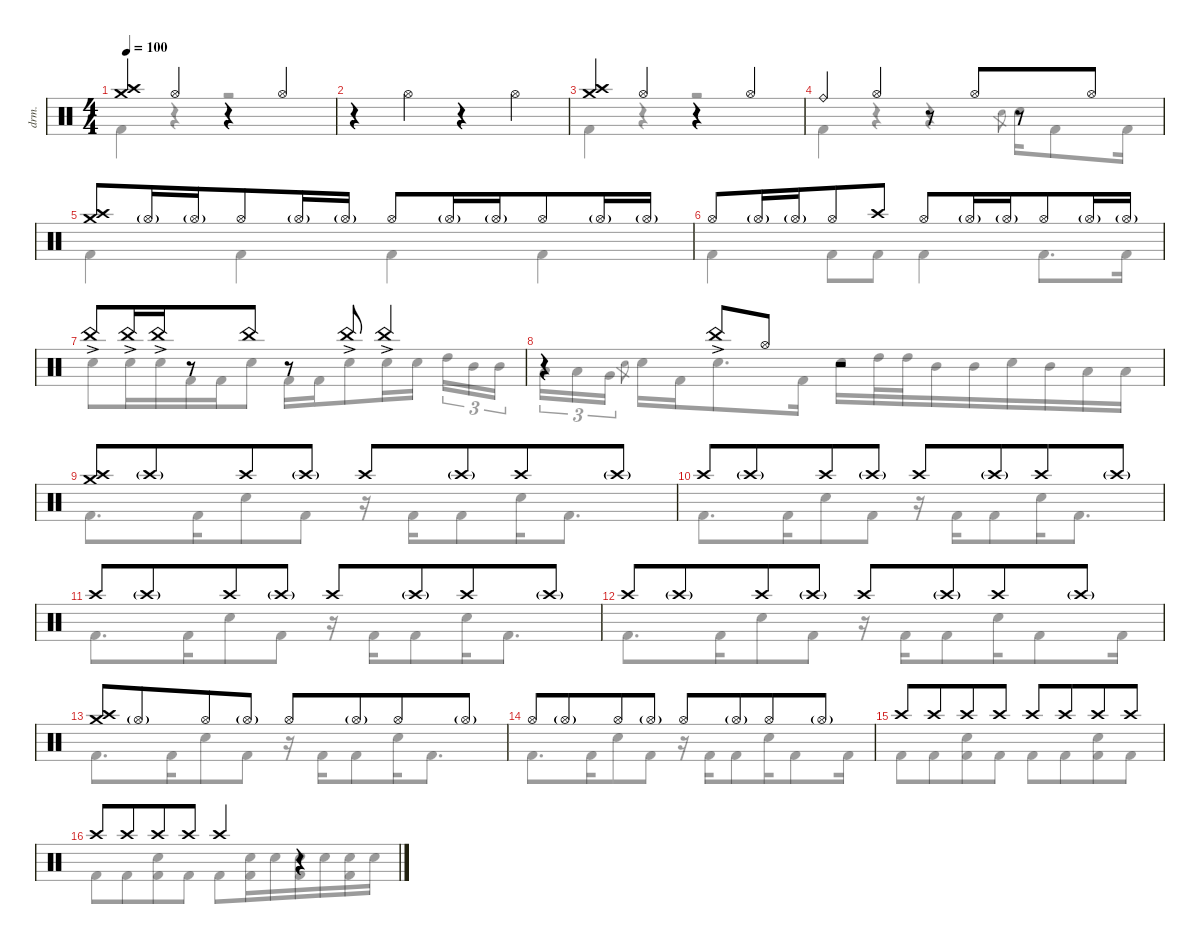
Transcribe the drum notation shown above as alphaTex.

\defaultSystemsLayout 4
\hideDynamics
\bracketExtendMode nobrackets
\otherSystemsTrackNameOrientation horizontal
\track ("B. Richardson Drums" "drm.") {instrument percussion}
\staff {score}
\articulation defaults
\voice
\ts (4 4)
\beaming (8 4 4)
\tempo 100
\clef neutral
\ks c
("Crash high (hit)" "Crash medium (hit)").4{dy f beam Up} "Hi-Hat (open)".4{dy mf beam Up} r.4{beam Up} "Hi-Hat (open)".4{beam Up} |
r.4{beam Down} "Hi-Hat (open)".4{beam Down} r.4{beam Down} "Hi-Hat (open)".4{beam Down} |
("Crash high (hit)" "Crash medium (hit)").4{dy f beam Up} "Hi-Hat (open)".4{dy mf beam Up} r.4{beam Up} "Hi-Hat (open)".4{beam Up} |
"Ride (bell)".4{dy f beam Up} "Hi-Hat (open)".4{dy mf beam Up} r.8{beam Up} "Hi-Hat (open)".8{beam Up} r.8{beam Up} "Hi-Hat (open)".8{beam Up} |
("Crash high (hit)" "Crash medium (hit)").8{dy f beam Up} "Hi-Hat (open)"{g}.16{dy mf beam Up} "Hi-Hat (open)"{g}.16{beam Up} "Hi-Hat (open)".8{beam Up} "Hi-Hat (open)"{g}.16{beam Up} "Hi-Hat (open)"{g}.16{beam Up} "Hi-Hat (open)".8{beam Up} "Hi-Hat (open)"{g}.16{beam Up} "Hi-Hat (open)"{g}.16{beam Up} "Hi-Hat (open)".8{beam Up} "Hi-Hat (open)"{g}.16{beam Up} "Hi-Hat (open)"{g}.16{beam Up} |
"Hi-Hat (open)".8{beam Up} "Hi-Hat (open)"{g}.16{beam Up} "Hi-Hat (open)"{g}.16{beam Up} "Hi-Hat (open)".8{beam Up} "Crash high (hit)".8{beam Up} "Hi-Hat (open)".8{beam Up} "Hi-Hat (open)"{g}.16{beam Up} "Hi-Hat (open)"{g}.16{beam Up} "Hi-Hat (open)".8{beam Up} "Hi-Hat (open)"{g}.16{beam Up} "Hi-Hat (open)"{g}.16{beam Up} |
"China (hit)"{ac}.8{dy f beam Up} "China (hit)"{ac}.16{beam Up} "China (hit)"{ac}.16{beam Up} r.8{beam Up} "China (hit)".8{beam Up} r.8{beam Up} "China (hit)"{ac}.8{beam Up} "China (hit)"{ac}.4{beam Up} |
r.4{beam Up} "China (hit)"{ac}.8{beam Up} "Hi-Hat (open)".8{dy mf beam Up} r.2{beam Up} |
("Crash high (hit)" "Crash medium (hit)").8{dy f beam Up} "Crash high (hit)"{g}.8{dy mf beam Up} "Crash high (hit)".8{beam Up} "Crash high (hit)"{g}.8{beam Up} "Crash high (hit)".8{beam Up} "Crash high (hit)"{g}.8{beam Up} "Crash high (hit)".8{beam Up} "Crash high (hit)"{g}.8{beam Up} |
"Crash high (hit)".8{beam Up} "Crash high (hit)"{g}.8{beam Up} "Crash high (hit)".8{beam Up} "Crash high (hit)"{g}.8{beam Up} "Crash high (hit)".8{beam Up} "Crash high (hit)"{g}.8{beam Up} "Crash high (hit)".8{beam Up} "Crash high (hit)"{g}.8{beam Up} |
"Crash high (hit)".8{beam Up} "Crash high (hit)"{g}.8{beam Up} "Crash high (hit)".8{beam Up} "Crash high (hit)"{g}.8{beam Up} "Crash high (hit)".8{beam Up} "Crash high (hit)"{g}.8{beam Up} "Crash high (hit)".8{beam Up} "Crash high (hit)"{g}.8{beam Up} |
"Crash high (hit)".8{beam Up} "Crash high (hit)"{g}.8{beam Up} "Crash high (hit)".8{beam Up} "Crash high (hit)"{g}.8{beam Up} "Crash high (hit)".8{beam Up} "Crash high (hit)"{g}.8{beam Up} "Crash high (hit)".8{beam Up} "Crash high (hit)"{g}.8{beam Up} |
("Crash high (hit)" "Crash medium (hit)").8{dy f beam Up} "Hi-Hat (open)"{g}.8{dy mf beam Up} "Hi-Hat (open)".8{beam Up} "Hi-Hat (open)"{g}.8{beam Up} "Hi-Hat (open)".8{beam Up} "Hi-Hat (open)"{g}.8{beam Up} "Hi-Hat (open)".8{beam Up} "Hi-Hat (open)"{g}.8{beam Up} |
"Hi-Hat (open)".8{beam Up} "Hi-Hat (open)"{g}.8{beam Up} "Hi-Hat (open)".8{beam Up} "Hi-Hat (open)"{g}.8{beam Up} "Hi-Hat (open)".8{beam Up} "Hi-Hat (open)"{g}.8{beam Up} "Hi-Hat (open)".8{beam Up} "Hi-Hat (open)"{g}.8{beam Up} |
"Crash high (hit)".8{beam Up} "Crash high (hit)".8{beam Up} "Crash high (hit)".8{beam Up} "Crash high (hit)".8{beam Up} "Crash high (hit)".8{beam Up} "Crash high (hit)".8{beam Up} "Crash high (hit)".8{beam Up} "Crash high (hit)".8{beam Up} |
"Crash high (hit)".8{beam Up} "Crash high (hit)".8{beam Up} "Crash high (hit)".8{beam Up} "Crash high (hit)".8{beam Up} "Crash high (hit)".4{beam Up} r.4{beam Up}
\voice
\clef neutral
\ottava regular
\simile none
\ks c "Kick (hit) 2".4{dy fff beam Down}
r.4{beam Down} r.2{beam Down} |
|
"Kick (hit) 2".4{beam Down} r.4{beam Down} r.2{beam Down} |
"Kick (hit) 2".4{beam Down} r.4{beam Down} r.4{beam Down} "Electric Snare (hit)".8{gr dy ff beam Down} "Snare (hit) 2".16{dy fff beam Down} "Kick (hit) 2".8{beam Down} "Kick (hit) 2".16{beam Down} |
"Kick (hit) 2".4{beam Down} "Kick (hit) 2".4{beam Down} "Kick (hit) 2".4{beam Down} "Kick (hit) 2".4{beam Down} |
"Kick (hit) 2".4{beam Down} "Kick (hit) 2".8{beam Down} "Kick (hit) 2".8{beam Down} "Kick (hit) 2".4{beam Down} "Kick (hit) 2".8{d beam Down} "Kick (hit) 2".16{beam Down} |
"Snare (hit) 2".8{beam Down} "Snare (hit) 2".16{beam Down} "Snare (hit) 2".16{beam Down} "Kick (hit) 2".16{beam Down} "Kick (hit) 2".16{beam Down} "Snare (hit) 2".8{beam Down} "Kick (hit) 2".16{beam Down} "Kick (hit) 2".16{beam Down} "Snare (hit) 2".8{beam Down} "Snare (hit) 2".16{beam Down} "Snare (hit) 2".16{beam Down} "High Tom (hit)".16{tu (3 2) beam Down} "Mid Tom (hit)".16{tu (3 2) beam Down} "Mid Tom (hit)".16{tu (3 2) beam Down} |
"Low Tom (hit)".16{tu (3 2) beam Down} "Low Tom (hit)".16{tu (3 2) beam Down} "Very Low Tom (hit)".16{tu (3 2) beam Down} "Electric Snare (hit)".8{gr dy ff beam Down} "Snare (hit) 2".16{dy fff beam Down} "Kick (hit) 2".16{beam Down} "Snare (hit) 2".8{d beam Down} "Kick (hit) 2".16{beam Down} "Snare (hit) 2".16{beam Down} "High Tom (hit)".32{beam Down} "High Tom (hit)".32{beam Down} "Mid Tom (hit)".16{beam Down} "Mid Tom (hit)".16{beam Down} "Snare (hit) 2".16{beam Down} "Mid Tom (hit)".16{beam Down} "Low Tom (hit)".16{beam Down} "Low Tom (hit)".16{beam Down} |
"Kick (hit) 2".8{d beam Down} "Kick (hit) 2".16{beam Down} "Snare (hit) 2".8{beam Down} "Kick (hit) 2".8{beam Down} r.16{beam Down} "Kick (hit) 2".16{beam Down} "Kick (hit) 2".8{beam Down} "Snare (hit) 2".16{beam Down} "Kick (hit) 2".8{d beam Down} |
"Kick (hit) 2".8{d beam Down} "Kick (hit) 2".16{beam Down} "Snare (hit) 2".8{beam Down} "Kick (hit) 2".8{beam Down} r.16{beam Down} "Kick (hit) 2".16{beam Down} "Kick (hit) 2".8{beam Down} "Snare (hit) 2".16{beam Down} "Kick (hit) 2".8{d beam Down} |
"Kick (hit) 2".8{d beam Down} "Kick (hit) 2".16{beam Down} "Snare (hit) 2".8{beam Down} "Kick (hit) 2".8{beam Down} r.16{beam Down} "Kick (hit) 2".16{beam Down} "Kick (hit) 2".8{beam Down} "Snare (hit) 2".16{beam Down} "Kick (hit) 2".8{d beam Down} |
"Kick (hit) 2".8{d beam Down} "Kick (hit) 2".16{beam Down} "Snare (hit) 2".8{beam Down} "Kick (hit) 2".8{beam Down} r.16{beam Down} "Kick (hit) 2".16{beam Down} "Kick (hit) 2".8{beam Down} "Snare (hit) 2".16{beam Down} "Kick (hit) 2".8{beam Down} "Kick (hit) 2".16{beam Down} |
"Kick (hit) 2".8{d beam Down} "Kick (hit) 2".16{beam Down} "Snare (hit) 2".8{beam Down} "Kick (hit) 2".8{beam Down} r.16{beam Down} "Kick (hit) 2".16{beam Down} "Kick (hit) 2".8{beam Down} "Snare (hit) 2".16{beam Down} "Kick (hit) 2".8{d beam Down} |
"Kick (hit) 2".8{d beam Down} "Kick (hit) 2".16{beam Down} "Snare (hit) 2".8{beam Down} "Kick (hit) 2".8{beam Down} r.16{beam Down} "Kick (hit) 2".16{beam Down} "Kick (hit) 2".8{beam Down} "Snare (hit) 2".16{beam Down} "Kick (hit) 2".8{beam Down} "Kick (hit) 2".16{beam Down} |
"Kick (hit) 2".8{beam Down} "Kick (hit) 2".8{beam Down} ("Snare (hit) 2" "Kick (hit) 2").8{beam Down} "Kick (hit) 2".8{beam Down} "Kick (hit) 2".8{beam Down} "Kick (hit) 2".8{beam Down} ("Snare (hit) 2" "Kick (hit) 2").8{beam Down} "Kick (hit) 2".8{beam Down} |
"Kick (hit) 2".8{beam Down} "Kick (hit) 2".8{beam Down} ("Snare (hit) 2" "Kick (hit) 2").8{beam Down} "Kick (hit) 2".8{beam Down} "Kick (hit) 2".8{beam Down} ("Snare (hit) 2" "Kick (hit) 2").16{beam Down} "Snare (hit) 2".16{beam Down} ("Snare (hit) 2" "Kick (hit) 2").16{beam Down} "Snare (hit) 2".16{beam Down} ("Snare (hit) 2" "Kick (hit) 2").16{beam Down} "Snare (hit) 2".16{beam Down}
